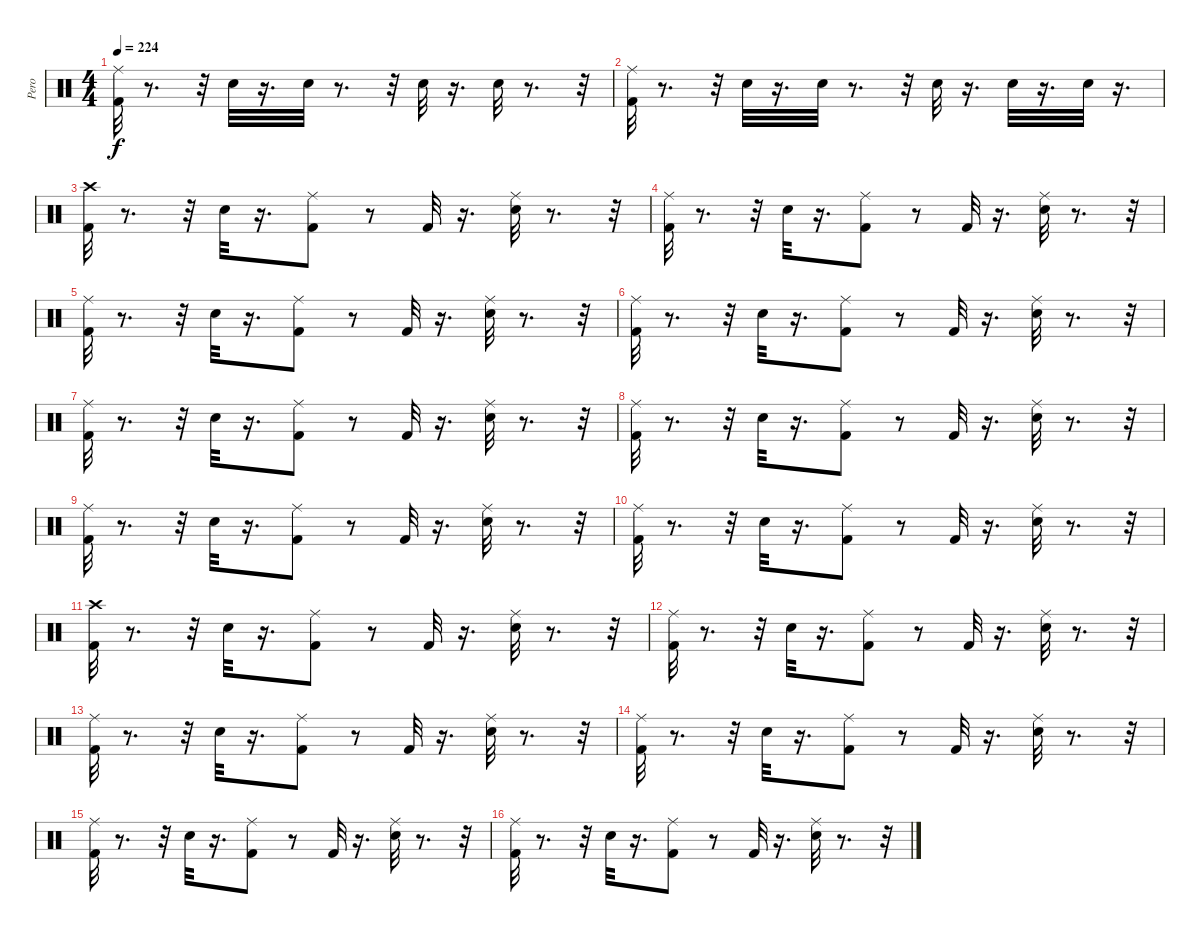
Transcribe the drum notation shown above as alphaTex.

\track ("Pero" "Pero") {instrument percussion}
\staff {score}
\articulation defaults
\ts (4 4)
\tempo 224
\clef neutral
\ks c
("Kick (hit) 2" "Ride (middle)").32{dy f} r.8{d} r.32 "Snare (hit) 2".32 r.16{d} "Snare (hit) 2".32 r.8{d} r.32 "Snare (hit) 2".32 r.16{d} "Snare (hit) 2".32 r.8{d} r.32 |
("Ride (middle)" "Kick (hit) 2").32 r.8{d} r.32 "Snare (hit) 2".32 r.16{d} "Snare (hit) 2".32 r.8{d} r.32 "Snare (hit) 2".32 r.16{d} "Snare (hit) 2".32 r.16{d} "Snare (hit) 2".32 r.16{d} |
("Crash high (hit)" "Kick (hit) 2").32 r.8{d} r.32 "Snare (hit) 2".32 r.16{d} ("Ride (middle)" "Kick (hit) 2").8 r.8 "Kick (hit) 2".32 r.16{d} ("Snare (hit) 2" "Ride (middle)").32 r.8{d} r.32 |
("Ride (middle)" "Kick (hit) 2").32 r.8{d} r.32 "Snare (hit) 2".32 r.16{d} ("Ride (middle)" "Kick (hit) 2").8 r.8 "Kick (hit) 2".32 r.16{d} ("Snare (hit) 2" "Ride (middle)").32 r.8{d} r.32 |
("Ride (middle)" "Kick (hit) 2").32 r.8{d} r.32 "Snare (hit) 2".32 r.16{d} ("Ride (middle)" "Kick (hit) 2").8 r.8 "Kick (hit) 2".32 r.16{d} ("Snare (hit) 2" "Ride (middle)").32 r.8{d} r.32 |
("Ride (middle)" "Kick (hit) 2").32 r.8{d} r.32 "Snare (hit) 2".32 r.16{d} ("Ride (middle)" "Kick (hit) 2").8 r.8 "Kick (hit) 2".32 r.16{d} ("Snare (hit) 2" "Ride (middle)").32 r.8{d} r.32 |
("Ride (middle)" "Kick (hit) 2").32 r.8{d} r.32 "Snare (hit) 2".32 r.16{d} ("Ride (middle)" "Kick (hit) 2").8 r.8 "Kick (hit) 2".32 r.16{d} ("Snare (hit) 2" "Ride (middle)").32 r.8{d} r.32 |
("Ride (middle)" "Kick (hit) 2").32 r.8{d} r.32 "Snare (hit) 2".32 r.16{d} ("Ride (middle)" "Kick (hit) 2").8 r.8 "Kick (hit) 2".32 r.16{d} ("Snare (hit) 2" "Ride (middle)").32 r.8{d} r.32 |
("Ride (middle)" "Kick (hit) 2").32 r.8{d} r.32 "Snare (hit) 2".32 r.16{d} ("Ride (middle)" "Kick (hit) 2").8 r.8 "Kick (hit) 2".32 r.16{d} ("Snare (hit) 2" "Ride (middle)").32 r.8{d} r.32 |
("Ride (middle)" "Kick (hit) 2").32 r.8{d} r.32 "Snare (hit) 2".32 r.16{d} ("Ride (middle)" "Kick (hit) 2").8 r.8 "Kick (hit) 2".32 r.16{d} ("Snare (hit) 2" "Ride (middle)").32 r.8{d} r.32 |
("Crash high (hit)" "Kick (hit) 2").32 r.8{d} r.32 "Snare (hit) 2".32 r.16{d} ("Ride (middle)" "Kick (hit) 2").8 r.8 "Kick (hit) 2".32 r.16{d} ("Snare (hit) 2" "Ride (middle)").32 r.8{d} r.32 |
("Ride (middle)" "Kick (hit) 2").32 r.8{d} r.32 "Snare (hit) 2".32 r.16{d} ("Ride (middle)" "Kick (hit) 2").8 r.8 "Kick (hit) 2".32 r.16{d} ("Snare (hit) 2" "Ride (middle)").32 r.8{d} r.32 |
("Ride (middle)" "Kick (hit) 2").32 r.8{d} r.32 "Snare (hit) 2".32 r.16{d} ("Ride (middle)" "Kick (hit) 2").8 r.8 "Kick (hit) 2".32 r.16{d} ("Snare (hit) 2" "Ride (middle)").32 r.8{d} r.32 |
("Ride (middle)" "Kick (hit) 2").32 r.8{d} r.32 "Snare (hit) 2".32 r.16{d} ("Ride (middle)" "Kick (hit) 2").8 r.8 "Kick (hit) 2".32 r.16{d} ("Snare (hit) 2" "Ride (middle)").32 r.8{d} r.32 |
("Ride (middle)" "Kick (hit) 2").32 r.8{d} r.32 "Snare (hit) 2".32 r.16{d} ("Ride (middle)" "Kick (hit) 2").8 r.8 "Kick (hit) 2".32 r.16{d} ("Snare (hit) 2" "Ride (middle)").32 r.8{d} r.32 |
("Ride (middle)" "Kick (hit) 2").32 r.8{d} r.32 "Snare (hit) 2".32 r.16{d} ("Ride (middle)" "Kick (hit) 2").8 r.8 "Kick (hit) 2".32 r.16{d} ("Snare (hit) 2" "Ride (middle)").32 r.8{d} r.32
